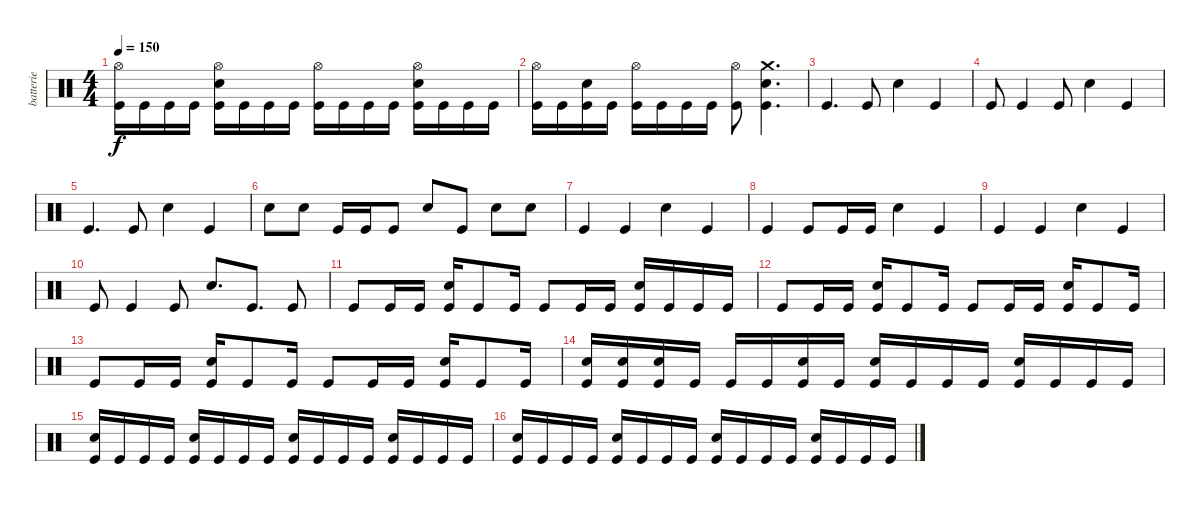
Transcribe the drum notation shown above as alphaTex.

\track ("batterie" "batterie") {instrument percussion}
\staff {score}
\articulation defaults
\ts (4 4)
\tempo 150
\clef neutral
\ks c
("Hi-Hat (open)" "Kick (hit)").16{dy f} "Kick (hit)".16 "Kick (hit)".16 "Kick (hit)".16 ("Hi-Hat (open)" "Snare (hit) 2" "Kick (hit)").16 "Kick (hit)".16 "Kick (hit)".16 "Kick (hit)".16 ("Hi-Hat (open)" "Kick (hit)").16 "Kick (hit)".16 "Kick (hit)".16 "Kick (hit)".16 ("Hi-Hat (open)" "Snare (hit) 2" "Kick (hit)").16 "Kick (hit)".16 "Kick (hit)".16 "Kick (hit)".16 |
("Hi-Hat (open)" "Kick (hit)").16 "Kick (hit)".16 ("Snare (hit) 2" "Kick (hit)").16 "Kick (hit)".16 ("Hi-Hat (open)" "Kick (hit)").16 "Kick (hit)".16 "Kick (hit)".16 "Kick (hit)".16 ("Hi-Hat (open)" "Kick (hit)").8 ("Crash medium (hit)" "Snare (hit) 2" "Kick (hit)").4{d} |
"Kick (hit)".4{d} "Kick (hit)".8 "Snare (hit) 2".4 "Kick (hit)".4 |
"Kick (hit)".8 "Kick (hit)".4 "Kick (hit)".8 "Snare (hit) 2".4 "Kick (hit)".4 |
"Kick (hit)".4{d} "Kick (hit)".8 "Snare (hit) 2".4 "Kick (hit)".4 |
"Snare (hit) 2".8 "Snare (hit) 2".8 "Kick (hit)".16 "Kick (hit)".16 "Kick (hit)".8 "Snare (hit) 2".8 "Kick (hit)".8 "Snare (hit) 2".8 "Snare (hit) 2".8 |
"Kick (hit)".4 "Kick (hit)".4 "Snare (hit) 2".4 "Kick (hit)".4 |
"Kick (hit)".4 "Kick (hit)".8 "Kick (hit)".16 "Kick (hit)".16 "Snare (hit) 2".4 "Kick (hit)".4 |
"Kick (hit)".4 "Kick (hit)".4 "Snare (hit) 2".4 "Kick (hit)".4 |
"Kick (hit)".8 "Kick (hit)".4 "Kick (hit)".8 "Snare (hit) 2".8{d} "Kick (hit)".8{d} "Kick (hit)".8 |
"Kick (hit)".8 "Kick (hit)".16 "Kick (hit)".16 ("Snare (hit) 2" "Kick (hit)").16 "Kick (hit)".8 "Kick (hit)".16 "Kick (hit)".8 "Kick (hit)".16 "Kick (hit)".16 ("Snare (hit) 2" "Kick (hit)").16 "Kick (hit)".16 "Kick (hit)".16 "Kick (hit)".16 |
"Kick (hit)".8 "Kick (hit)".16 "Kick (hit)".16 ("Snare (hit) 2" "Kick (hit)").16 "Kick (hit)".8 "Kick (hit)".16 "Kick (hit)".8 "Kick (hit)".16 "Kick (hit)".16 ("Snare (hit) 2" "Kick (hit)").16 "Kick (hit)".8 "Kick (hit)".16 |
"Kick (hit)".8 "Kick (hit)".16 "Kick (hit)".16 ("Snare (hit) 2" "Kick (hit)").16 "Kick (hit)".8 "Kick (hit)".16 "Kick (hit)".8 "Kick (hit)".16 "Kick (hit)".16 ("Snare (hit) 2" "Kick (hit)").16 "Kick (hit)".8 "Kick (hit)".16 |
("Snare (hit) 2" "Kick (hit)").16 ("Snare (hit) 2" "Kick (hit)").16 ("Snare (hit) 2" "Kick (hit)").16 "Kick (hit)".16 "Kick (hit)".16 "Kick (hit)".16 ("Snare (hit) 2" "Kick (hit)").16 "Kick (hit)".16 ("Snare (hit) 2" "Kick (hit)").16 "Kick (hit)".16 "Kick (hit)".16 "Kick (hit)".16 ("Snare (hit) 2" "Kick (hit)").16 "Kick (hit)".16 "Kick (hit)".16 "Kick (hit)".16 |
("Snare (hit) 2" "Kick (hit)").16 "Kick (hit)".16 "Kick (hit)".16 "Kick (hit)".16 ("Snare (hit) 2" "Kick (hit)").16 "Kick (hit)".16 "Kick (hit)".16 "Kick (hit)".16 ("Snare (hit) 2" "Kick (hit)").16 "Kick (hit)".16 "Kick (hit)".16 "Kick (hit)".16 ("Snare (hit) 2" "Kick (hit)").16 "Kick (hit)".16 "Kick (hit)".16 "Kick (hit)".16 |
("Snare (hit) 2" "Kick (hit)").16 "Kick (hit)".16 "Kick (hit)".16 "Kick (hit)".16 ("Snare (hit) 2" "Kick (hit)").16 "Kick (hit)".16 "Kick (hit)".16 "Kick (hit)".16 ("Snare (hit) 2" "Kick (hit)").16 "Kick (hit)".16 "Kick (hit)".16 "Kick (hit)".16 ("Snare (hit) 2" "Kick (hit)").16 "Kick (hit)".16 "Kick (hit)".16 "Kick (hit)".16
